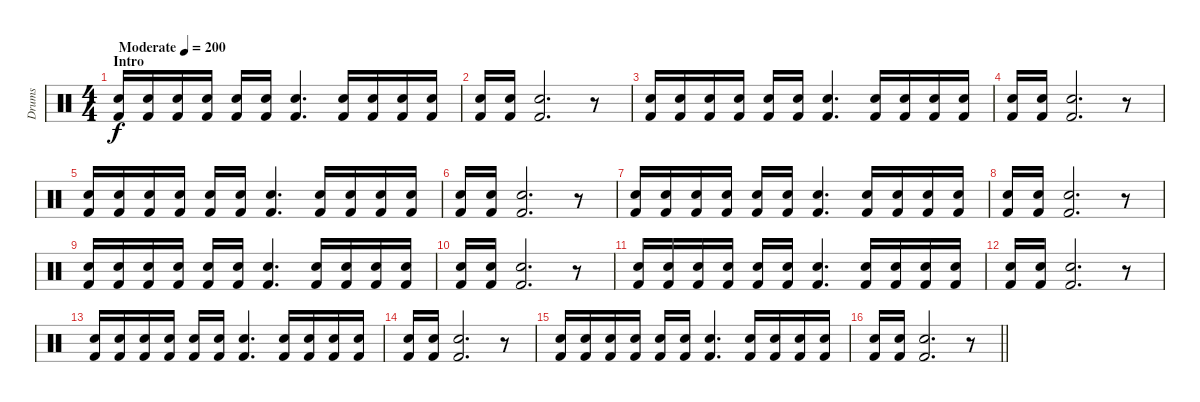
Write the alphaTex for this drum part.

\track ("Drums" "Drums") {instrument percussion}
\staff {score}
\articulation defaults
\ts (4 4)
\section ("" "Intro")
\tempo (200 "Moderate")
\clef neutral
\ks c
("Snare (hit) 2" "Kick (hit) 2").16{dy f} ("Snare (hit) 2" "Kick (hit) 2").16 ("Snare (hit) 2" "Kick (hit) 2").16 ("Snare (hit) 2" "Kick (hit) 2").16 ("Snare (hit) 2" "Kick (hit) 2").16 ("Snare (hit) 2" "Kick (hit) 2").16 ("Snare (hit) 2" "Kick (hit) 2").4{d} ("Snare (hit) 2" "Kick (hit) 2").16 ("Snare (hit) 2" "Kick (hit) 2").16 ("Snare (hit) 2" "Kick (hit) 2").16 ("Snare (hit) 2" "Kick (hit) 2").16 |
("Snare (hit) 2" "Kick (hit) 2").16 ("Snare (hit) 2" "Kick (hit) 2").16 ("Snare (hit) 2" "Kick (hit) 2").2{d} r.8 |
("Snare (hit) 2" "Kick (hit) 2").16 ("Snare (hit) 2" "Kick (hit) 2").16 ("Snare (hit) 2" "Kick (hit) 2").16 ("Snare (hit) 2" "Kick (hit) 2").16 ("Snare (hit) 2" "Kick (hit) 2").16 ("Snare (hit) 2" "Kick (hit) 2").16 ("Snare (hit) 2" "Kick (hit) 2").4{d} ("Snare (hit) 2" "Kick (hit) 2").16 ("Snare (hit) 2" "Kick (hit) 2").16 ("Snare (hit) 2" "Kick (hit) 2").16 ("Snare (hit) 2" "Kick (hit) 2").16 |
("Snare (hit) 2" "Kick (hit) 2").16 ("Snare (hit) 2" "Kick (hit) 2").16 ("Snare (hit) 2" "Kick (hit) 2").2{d} r.8 |
("Snare (hit) 2" "Kick (hit) 2").16 ("Snare (hit) 2" "Kick (hit) 2").16 ("Snare (hit) 2" "Kick (hit) 2").16 ("Snare (hit) 2" "Kick (hit) 2").16 ("Snare (hit) 2" "Kick (hit) 2").16 ("Snare (hit) 2" "Kick (hit) 2").16 ("Snare (hit) 2" "Kick (hit) 2").4{d} ("Snare (hit) 2" "Kick (hit) 2").16 ("Snare (hit) 2" "Kick (hit) 2").16 ("Snare (hit) 2" "Kick (hit) 2").16 ("Snare (hit) 2" "Kick (hit) 2").16 |
("Snare (hit) 2" "Kick (hit) 2").16 ("Snare (hit) 2" "Kick (hit) 2").16 ("Snare (hit) 2" "Kick (hit) 2").2{d} r.8 |
("Snare (hit) 2" "Kick (hit) 2").16 ("Snare (hit) 2" "Kick (hit) 2").16 ("Snare (hit) 2" "Kick (hit) 2").16 ("Snare (hit) 2" "Kick (hit) 2").16 ("Snare (hit) 2" "Kick (hit) 2").16 ("Snare (hit) 2" "Kick (hit) 2").16 ("Snare (hit) 2" "Kick (hit) 2").4{d} ("Snare (hit) 2" "Kick (hit) 2").16 ("Snare (hit) 2" "Kick (hit) 2").16 ("Snare (hit) 2" "Kick (hit) 2").16 ("Snare (hit) 2" "Kick (hit) 2").16 |
("Snare (hit) 2" "Kick (hit) 2").16 ("Snare (hit) 2" "Kick (hit) 2").16 ("Snare (hit) 2" "Kick (hit) 2").2{d} r.8 |
("Snare (hit) 2" "Kick (hit) 2").16 ("Snare (hit) 2" "Kick (hit) 2").16 ("Snare (hit) 2" "Kick (hit) 2").16 ("Snare (hit) 2" "Kick (hit) 2").16 ("Snare (hit) 2" "Kick (hit) 2").16 ("Snare (hit) 2" "Kick (hit) 2").16 ("Snare (hit) 2" "Kick (hit) 2").4{d} ("Snare (hit) 2" "Kick (hit) 2").16 ("Snare (hit) 2" "Kick (hit) 2").16 ("Snare (hit) 2" "Kick (hit) 2").16 ("Snare (hit) 2" "Kick (hit) 2").16 |
("Snare (hit) 2" "Kick (hit) 2").16 ("Snare (hit) 2" "Kick (hit) 2").16 ("Snare (hit) 2" "Kick (hit) 2").2{d} r.8 |
("Snare (hit) 2" "Kick (hit) 2").16 ("Snare (hit) 2" "Kick (hit) 2").16 ("Snare (hit) 2" "Kick (hit) 2").16 ("Snare (hit) 2" "Kick (hit) 2").16 ("Snare (hit) 2" "Kick (hit) 2").16 ("Snare (hit) 2" "Kick (hit) 2").16 ("Snare (hit) 2" "Kick (hit) 2").4{d} ("Snare (hit) 2" "Kick (hit) 2").16 ("Snare (hit) 2" "Kick (hit) 2").16 ("Snare (hit) 2" "Kick (hit) 2").16 ("Snare (hit) 2" "Kick (hit) 2").16 |
("Snare (hit) 2" "Kick (hit) 2").16 ("Snare (hit) 2" "Kick (hit) 2").16 ("Snare (hit) 2" "Kick (hit) 2").2{d} r.8 |
("Snare (hit) 2" "Kick (hit) 2").16 ("Snare (hit) 2" "Kick (hit) 2").16 ("Snare (hit) 2" "Kick (hit) 2").16 ("Snare (hit) 2" "Kick (hit) 2").16 ("Snare (hit) 2" "Kick (hit) 2").16 ("Snare (hit) 2" "Kick (hit) 2").16 ("Snare (hit) 2" "Kick (hit) 2").4{d} ("Snare (hit) 2" "Kick (hit) 2").16 ("Snare (hit) 2" "Kick (hit) 2").16 ("Snare (hit) 2" "Kick (hit) 2").16 ("Snare (hit) 2" "Kick (hit) 2").16 |
("Snare (hit) 2" "Kick (hit) 2").16 ("Snare (hit) 2" "Kick (hit) 2").16 ("Snare (hit) 2" "Kick (hit) 2").2{d} r.8 |
("Snare (hit) 2" "Kick (hit) 2").16 ("Snare (hit) 2" "Kick (hit) 2").16 ("Snare (hit) 2" "Kick (hit) 2").16 ("Snare (hit) 2" "Kick (hit) 2").16 ("Snare (hit) 2" "Kick (hit) 2").16 ("Snare (hit) 2" "Kick (hit) 2").16 ("Snare (hit) 2" "Kick (hit) 2").4{d} ("Snare (hit) 2" "Kick (hit) 2").16 ("Snare (hit) 2" "Kick (hit) 2").16 ("Snare (hit) 2" "Kick (hit) 2").16 ("Snare (hit) 2" "Kick (hit) 2").16 |
\barLineRight lightlight
("Snare (hit) 2" "Kick (hit) 2").16 ("Snare (hit) 2" "Kick (hit) 2").16 ("Snare (hit) 2" "Kick (hit) 2").2{d} r.8
